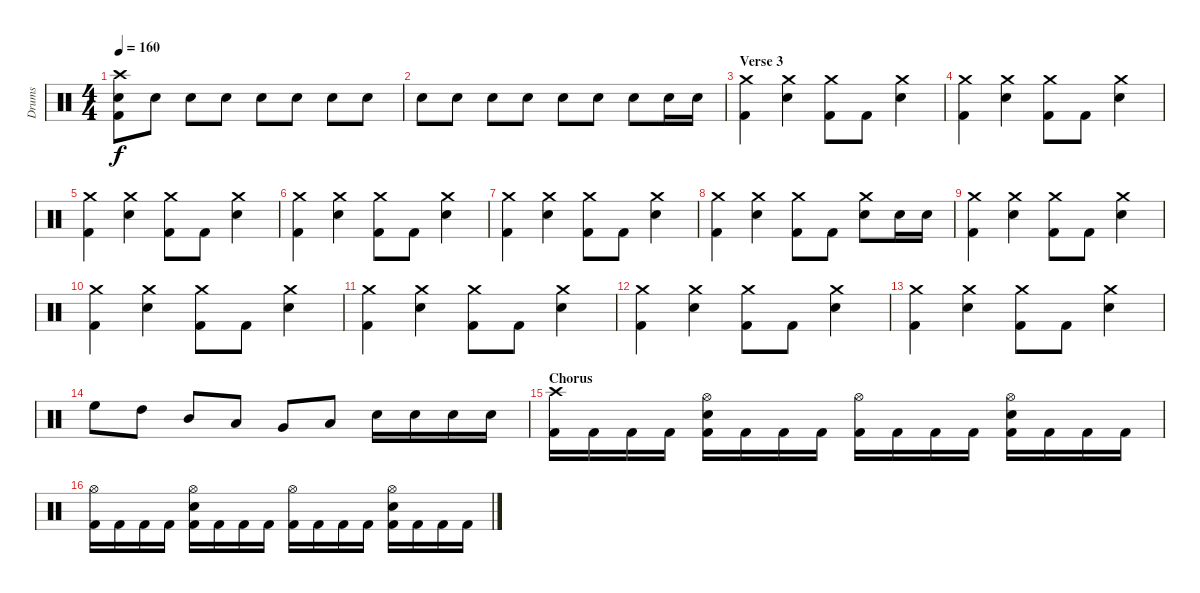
\track ("Drums" "Drums") {instrument percussion}
\staff {score}
\articulation defaults
\ts (4 4)
\tempo 160
\clef neutral
\ks c
("Crash high (hit)" "Kick (hit) 2" "Electric Snare (hit)").8{dy f} "Electric Snare (hit)".8 "Electric Snare (hit)".8 "Electric Snare (hit)".8 "Electric Snare (hit)".8 "Electric Snare (hit)".8 "Electric Snare (hit)".8 "Electric Snare (hit)".8 |
"Electric Snare (hit)".8 "Electric Snare (hit)".8 "Electric Snare (hit)".8 "Electric Snare (hit)".8 "Electric Snare (hit)".8 "Electric Snare (hit)".8 "Electric Snare (hit)".8 "Electric Snare (hit)".16 "Electric Snare (hit)".16 |
\section ("" "Verse 3")
("Crash medium (hit)" "Kick (hit) 2").4 ("Crash medium (hit)" "Electric Snare (hit)").4 ("Crash medium (hit)" "Kick (hit) 2").8 "Kick (hit) 2".8 ("Crash medium (hit)" "Electric Snare (hit)").4 |
("Crash medium (hit)" "Kick (hit) 2").4 ("Crash medium (hit)" "Electric Snare (hit)").4 ("Crash medium (hit)" "Kick (hit) 2").8 "Kick (hit) 2".8 ("Crash medium (hit)" "Electric Snare (hit)").4 |
("Crash medium (hit)" "Kick (hit) 2").4 ("Crash medium (hit)" "Electric Snare (hit)").4 ("Crash medium (hit)" "Kick (hit) 2").8 "Kick (hit) 2".8 ("Crash medium (hit)" "Electric Snare (hit)").4 |
("Crash medium (hit)" "Kick (hit) 2").4 ("Crash medium (hit)" "Electric Snare (hit)").4 ("Crash medium (hit)" "Kick (hit) 2").8 "Kick (hit) 2".8 ("Crash medium (hit)" "Electric Snare (hit)").4 |
("Crash medium (hit)" "Kick (hit) 2").4 ("Crash medium (hit)" "Electric Snare (hit)").4 ("Crash medium (hit)" "Kick (hit) 2").8 "Kick (hit) 2".8 ("Crash medium (hit)" "Electric Snare (hit)").4 |
("Crash medium (hit)" "Kick (hit) 2").4 ("Crash medium (hit)" "Electric Snare (hit)").4 ("Crash medium (hit)" "Kick (hit) 2").8 "Kick (hit) 2".8 ("Crash medium (hit)" "Electric Snare (hit)").8 "Electric Snare (hit)".16 "Electric Snare (hit)".16 |
("Crash medium (hit)" "Kick (hit) 2").4 ("Crash medium (hit)" "Electric Snare (hit)").4 ("Crash medium (hit)" "Kick (hit) 2").8 "Kick (hit) 2".8 ("Crash medium (hit)" "Electric Snare (hit)").4 |
("Crash medium (hit)" "Kick (hit) 2").4 ("Crash medium (hit)" "Electric Snare (hit)").4 ("Crash medium (hit)" "Kick (hit) 2").8 "Kick (hit) 2".8 ("Crash medium (hit)" "Electric Snare (hit)").4 |
("Crash medium (hit)" "Kick (hit) 2").4 ("Crash medium (hit)" "Electric Snare (hit)").4 ("Crash medium (hit)" "Kick (hit) 2").8 "Kick (hit) 2".8 ("Crash medium (hit)" "Electric Snare (hit)").4 |
("Crash medium (hit)" "Kick (hit) 2").4 ("Crash medium (hit)" "Electric Snare (hit)").4 ("Crash medium (hit)" "Kick (hit) 2").8 "Kick (hit) 2".8 ("Crash medium (hit)" "Electric Snare (hit)").4 |
("Crash medium (hit)" "Kick (hit) 2").4 ("Crash medium (hit)" "Electric Snare (hit)").4 ("Crash medium (hit)" "Kick (hit) 2").8 "Kick (hit) 2".8 ("Crash medium (hit)" "Electric Snare (hit)").4 |
"High Floor Tom (hit)".8 "High Tom (hit)".8 "Mid Tom (hit)".8 "Low Tom (hit)".8 "Very Low Tom (hit)".8 "Low Floor Tom (hit)".8 "Electric Snare (hit)".16 "Electric Snare (hit)".16 "Electric Snare (hit)".16 "Electric Snare (hit)".16 |
\section ("" "Chorus")
("Crash high (hit)" "Kick (hit) 2").16 "Kick (hit) 2".16 "Kick (hit) 2".16 "Kick (hit) 2".16 ("Hi-Hat (open)" "Electric Snare (hit)" "Kick (hit) 2").16 "Kick (hit) 2".16 "Kick (hit) 2".16 "Kick (hit) 2".16 ("Hi-Hat (open)" "Kick (hit) 2").16 "Kick (hit) 2".16 "Kick (hit) 2".16 "Kick (hit) 2".16 ("Hi-Hat (open)" "Electric Snare (hit)" "Kick (hit) 2").16 "Kick (hit) 2".16 "Kick (hit) 2".16 "Kick (hit) 2".16 |
("Hi-Hat (open)" "Kick (hit) 2").16 "Kick (hit) 2".16 "Kick (hit) 2".16 "Kick (hit) 2".16 ("Hi-Hat (open)" "Electric Snare (hit)" "Kick (hit) 2").16 "Kick (hit) 2".16 "Kick (hit) 2".16 "Kick (hit) 2".16 ("Hi-Hat (open)" "Kick (hit) 2").16 "Kick (hit) 2".16 "Kick (hit) 2".16 "Kick (hit) 2".16 ("Hi-Hat (open)" "Electric Snare (hit)" "Kick (hit) 2").16 "Kick (hit) 2".16 "Kick (hit) 2".16 "Kick (hit) 2".16
